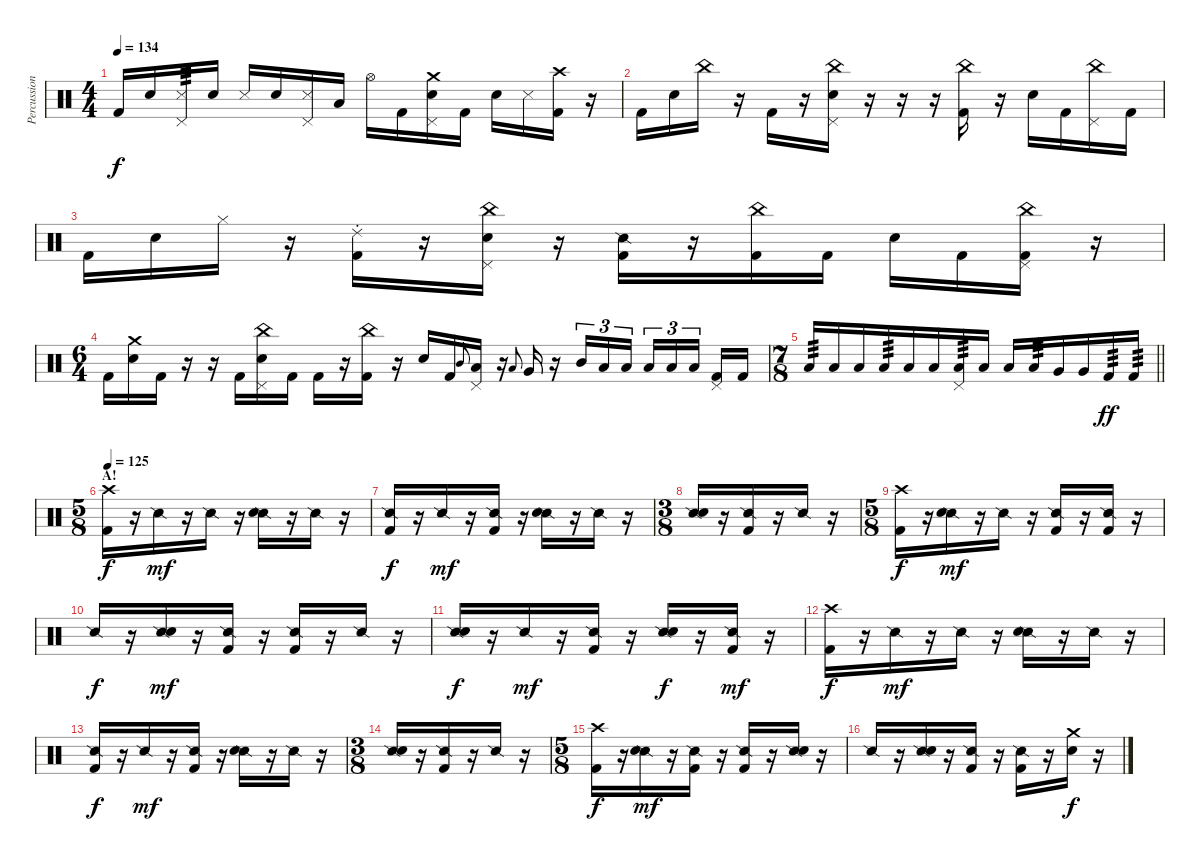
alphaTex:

\track ("Percussion" "Percussion") {instrument percussion}
\staff {score}
\articulation defaults
\ts (4 4)
\tempo 134
\clef neutral
\ks c "Kick (hit) 2".16{dy f} "Snare (hit) 2".16
("Pedal Hi-Hat (hit)" "Metronome (hit)").16{tp 3} "Snare (hit) 2".16 "Metronome (hit)".16 "Snare (hit) 2".16 ("Pedal Hi-Hat (hit)" "Metronome (hit)").16 "Low Tom (hit)".16 "Hi-Hat (open)".16 "Kick (hit) 2".16 ("Crash medium (hit)" "Pedal Hi-Hat (hit)" "Snare (hit) 2").16 "Kick (hit) 2".16 "Snare (hit) 2".16 "Metronome (hit)".16 ("Crash high (hit)" "Kick (hit) 2").16 r.16 |
"Kick (hit) 2".16 "Snare (hit) 2".16 "China (hit)".16 r.16 "Kick (hit) 2".16 r.16 ("China (hit)" "Pedal Hi-Hat (hit)" "Snare (hit) 2").16 r.16 r.16 r.16 ("China (hit)" "Kick (hit) 2").16 r.16 "Snare (hit) 2".16 "Kick (hit) 2".16 ("China (hit)" "Pedal Hi-Hat (hit)").16 "Kick (hit) 2".16 |
"Kick (hit) 2".16 "Snare (hit) 2".16 "Hi-Hat (closed)".16 r.16 ("Ride (choke) 2" "Kick (hit) 2").16 r.16 ("China (hit)" "Pedal Hi-Hat (hit)" "Snare (hit) 2").16 r.16 ("Snare (side stick) 2" "Kick (hit) 2").16 r.16 ("China (hit)" "Kick (hit) 2").16 "Kick (hit) 2".16 "Snare (hit) 2".16 "Kick (hit) 2".16 ("China (hit)" "Pedal Hi-Hat (hit)" "Kick (hit) 2").16 r.16 |
\ts (6 4)
"Kick (hit) 2".16 ("Crash medium (hit)" "Snare (hit) 2").16 "Kick (hit) 2".16 r.16 r.16 "Kick (hit) 2".16 ("China (hit)" "Pedal Hi-Hat (hit)" "Snare (hit) 2").16 "Kick (hit) 2".16 "Kick (hit) 2".16 r.16 ("China (hit)" "Kick (hit) 2").16 r.16 "Snare (hit) 2".16 "Kick (hit) 2".16 "Mid Tom (hit)".8{gr onbeat} ("Pedal Hi-Hat (hit)" "Low Tom (hit)").16 r.16 "Low Tom (hit)".8{gr onbeat} "Very Low Tom (hit)".16 r.16 "Mid Tom (hit)".16{tu (3 2)} "Low Tom (hit)".16{tu (3 2)} "Low Floor Tom (hit)".16{tu (3 2) beam splitsecondary} "Low Floor Tom (hit)".16{tu (3 2)} "Low Floor Tom (hit)".16{tu (3 2)} "Low Floor Tom (hit)".16{tu (3 2) beam splitsecondary} ("Pedal Hi-Hat (hit)" "Kick (hit) 2").16 "Kick (hit) 2".16 |
\ts (7 8)
\barLineRight lightlight "Low Tom (hit)".16{tp 3} "Low Tom (hit)".16 "Low Tom (hit)".16 "Low Tom (hit)".16{tp 3} "Low Tom (hit)".16 "Low Tom (hit)".16
("Pedal Hi-Hat (hit)" "Low Tom (hit)").16{tp 3} "Low Tom (hit)".16 "Low Tom (hit)".16 "Low Tom (hit)".16{tp 3} "Very Low Tom (hit)".16 "Very Low Tom (hit)".16 "Kick (hit) 2".16{tp 3 dy ff} "Kick (hit) 2".16{tp 3} |
\ts (5 8)
\section ("" "A!")
\tempo 125
("Crash high (hit)" "Kick (hit) 2").16{dy f} r.16 "Snare (side stick) 2".16{dy mf} r.16 "Snare (side stick) 2".16 r.16 ("Snare (side stick) 2" "Snare (hit) 2").16 r.16 "Snare (side stick) 2".16 r.16 |
("Snare (side stick) 2" "Kick (hit) 2").16{dy f} r.16 "Snare (side stick) 2".16{dy mf} r.16 ("Snare (side stick) 2" "Kick (hit) 2").16 r.16 ("Snare (side stick) 2" "Snare (hit) 2").16 r.16 "Snare (side stick) 2".16 r.16 |
\ts (3 8)
("Snare (side stick) 2" "Snare (hit) 2").16 r.16 ("Snare (side stick) 2" "Kick (hit) 2").16 r.16 "Snare (side stick) 2".16 r.16 |
\ts (5 8)
("Crash high (hit)" "Kick (hit) 2").16{dy f} r.16 ("Snare (side stick) 2" "Snare (hit) 2").16{dy mf} r.16 "Snare (side stick) 2".16 r.16 ("Snare (side stick) 2" "Kick (hit) 2").16 r.16 ("Snare (side stick) 2" "Kick (hit) 2").16 r.16 |
"Snare (side stick) 2".16{dy f} r.16 ("Snare (side stick) 2" "Snare (hit) 2").16{dy mf} r.16 ("Snare (side stick) 2" "Kick (hit) 2").16 r.16 ("Snare (side stick) 2" "Kick (hit) 2").16 r.16 "Snare (side stick) 2".16 r.16 |
("Snare (side stick) 2" "Snare (hit) 2").16{dy f} r.16 "Snare (side stick) 2".16{dy mf} r.16 ("Snare (side stick) 2" "Kick (hit) 2").16 r.16 ("Snare (side stick) 2" "Snare (hit) 2").16{dy f} r.16 ("Snare (side stick) 2" "Kick (hit) 2").16{dy mf} r.16 |
("Crash high (hit)" "Kick (hit) 2").16{dy f} r.16 "Snare (side stick) 2".16{dy mf} r.16 "Snare (side stick) 2".16 r.16 ("Snare (side stick) 2" "Snare (hit) 2").16 r.16 "Snare (side stick) 2".16 r.16 |
("Snare (side stick) 2" "Kick (hit) 2").16{dy f} r.16 "Snare (side stick) 2".16{dy mf} r.16 ("Snare (side stick) 2" "Kick (hit) 2").16 r.16 ("Snare (side stick) 2" "Snare (hit) 2").16 r.16 "Snare (side stick) 2".16 r.16 |
\ts (3 8)
("Snare (side stick) 2" "Snare (hit) 2").16 r.16 ("Snare (side stick) 2" "Kick (hit) 2").16 r.16 "Snare (side stick) 2".16 r.16 |
\ts (5 8)
("Crash high (hit)" "Kick (hit) 2").16{dy f} r.16 ("Snare (side stick) 2" "Snare (hit) 2").16{dy mf} r.16 ("Snare (side stick) 2" "Kick (hit) 2").16 r.16 ("Snare (side stick) 2" "Kick (hit) 2").16 r.16 ("Snare (side stick) 2" "Snare (hit) 2").16 r.16 |
"Snare (side stick) 2".16 r.16 ("Snare (side stick) 2" "Snare (hit) 2").16 r.16 ("Snare (side stick) 2" "Kick (hit) 2").16 r.16 ("Snare (side stick) 2" "Kick (hit) 2").16 r.16 ("Crash medium (hit)" "Snare (hit) 2").16{dy f} r.16
